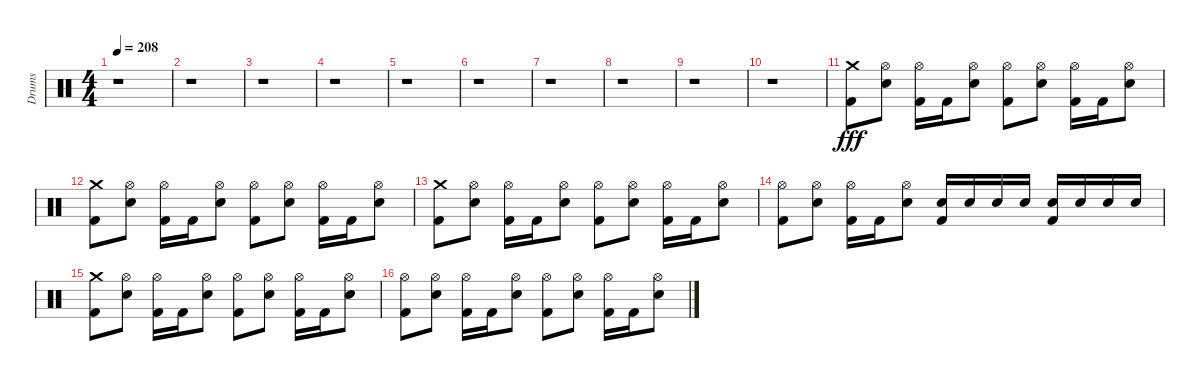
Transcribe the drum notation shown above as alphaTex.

\track ("Drums" "Drums") {instrument percussion}
\staff {score}
\articulation defaults
\ts (4 4)
\tempo 208
\clef neutral
\ks c
r.1{dy f} |
r.1 |
r.1 |
r.1 |
r.1 |
r.1 |
r.1 |
r.1 |
r.1 |
r.1 |
("Kick (hit) 2" "Crash medium (hit)").8{dy fff} ("Electric Snare (hit)" "Hi-Hat (open)").8 ("Hi-Hat (open)" "Kick (hit) 2").16 "Kick (hit) 2".16 ("Electric Snare (hit)" "Hi-Hat (open)").8 ("Hi-Hat (open)" "Kick (hit) 2").8 ("Electric Snare (hit)" "Hi-Hat (open)").8 ("Hi-Hat (open)" "Kick (hit) 2").16 "Kick (hit) 2".16 ("Electric Snare (hit)" "Hi-Hat (open)").8 |
("Kick (hit) 2" "Crash medium (hit)").8 ("Electric Snare (hit)" "Hi-Hat (open)").8 ("Hi-Hat (open)" "Kick (hit) 2").16 "Kick (hit) 2".16 ("Electric Snare (hit)" "Hi-Hat (open)").8 ("Hi-Hat (open)" "Kick (hit) 2").8 ("Electric Snare (hit)" "Hi-Hat (open)").8 ("Hi-Hat (open)" "Kick (hit) 2").16 "Kick (hit) 2".16 ("Electric Snare (hit)" "Hi-Hat (open)").8 |
("Kick (hit) 2" "Crash medium (hit)").8 ("Electric Snare (hit)" "Hi-Hat (open)").8 ("Hi-Hat (open)" "Kick (hit) 2").16 "Kick (hit) 2".16 ("Electric Snare (hit)" "Hi-Hat (open)").8 ("Hi-Hat (open)" "Kick (hit) 2").8 ("Electric Snare (hit)" "Hi-Hat (open)").8 ("Hi-Hat (open)" "Kick (hit) 2").16 "Kick (hit) 2".16 ("Electric Snare (hit)" "Hi-Hat (open)").8 |
("Hi-Hat (open)" "Kick (hit) 2").8 ("Electric Snare (hit)" "Hi-Hat (open)").8 ("Hi-Hat (open)" "Kick (hit) 2").16 "Kick (hit) 2".16 ("Electric Snare (hit)" "Hi-Hat (open)").8 ("Kick (hit) 2" "Electric Snare (hit)").16 "Electric Snare (hit)".16 "Electric Snare (hit)".16 "Electric Snare (hit)".16 ("Kick (hit) 2" "Electric Snare (hit)").16 "Electric Snare (hit)".16 "Electric Snare (hit)".16 "Electric Snare (hit)".16 |
("Kick (hit) 2" "Crash medium (hit)").8 ("Electric Snare (hit)" "Hi-Hat (open)").8 ("Hi-Hat (open)" "Kick (hit) 2").16 "Kick (hit) 2".16 ("Electric Snare (hit)" "Hi-Hat (open)").8 ("Hi-Hat (open)" "Kick (hit) 2").8 ("Electric Snare (hit)" "Hi-Hat (open)").8 ("Hi-Hat (open)" "Kick (hit) 2").16 "Kick (hit) 2".16 ("Electric Snare (hit)" "Hi-Hat (open)").8 |
("Hi-Hat (open)" "Kick (hit) 2").8 ("Electric Snare (hit)" "Hi-Hat (open)").8 ("Hi-Hat (open)" "Kick (hit) 2").16 "Kick (hit) 2".16 ("Electric Snare (hit)" "Hi-Hat (open)").8 ("Hi-Hat (open)" "Kick (hit) 2").8 ("Electric Snare (hit)" "Hi-Hat (open)").8 ("Hi-Hat (open)" "Kick (hit) 2").16 "Kick (hit) 2".16 ("Electric Snare (hit)" "Hi-Hat (open)").8
